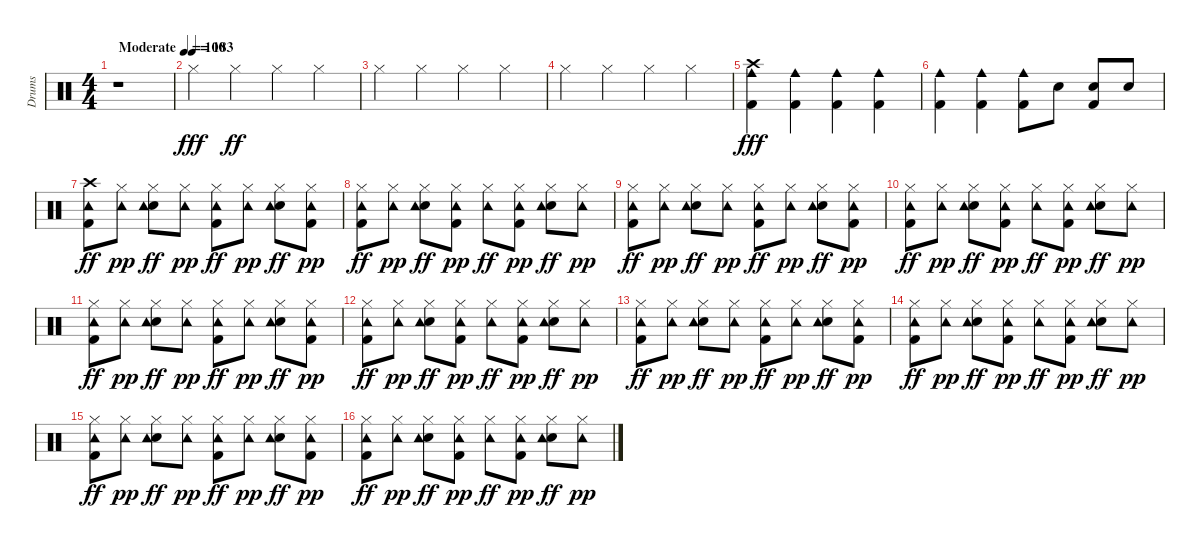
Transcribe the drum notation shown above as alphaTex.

\track ("Drums" "Drums") {instrument percussion}
\staff {score}
\articulation defaults
\ts (4 4)
\tempo (100 "Moderate")
\clef neutral
\ks c
r.1{dy fff} |
\tempo (183)
"Hi-Hat (closed)".4 "Hi-Hat (closed)".4{dy ff} "Hi-Hat (closed)".4 "Hi-Hat (closed)".4 |
"Hi-Hat (closed)".4 "Hi-Hat (closed)".4 "Hi-Hat (closed)".4 "Hi-Hat (closed)".4 |
"Hi-Hat (closed)".4 "Hi-Hat (closed)".4 "Hi-Hat (closed)".4 "Hi-Hat (closed)".4 |
("Cowbell medium (hit)" "Kick (hit) 2" "Crash high (hit)").4{dy fff} ("Cowbell medium (hit)" "Kick (hit) 2").4 ("Cowbell medium (hit)" "Kick (hit) 2").4 ("Cowbell medium (hit)" "Kick (hit) 2").4 |
("Cowbell medium (hit)" "Kick (hit) 2").4 ("Cowbell medium (hit)" "Kick (hit) 2").4 ("Cowbell medium (hit)" "Kick (hit) 2").8 "Snare (hit) 2".8 ("Kick (hit) 2" "Snare (hit) 2").8 "Snare (hit) 2".8 |
("Kick (hit) 2" "Crash high (hit)" "Tambourine (hit)").8{dy ff} ("Hi-Hat (closed)" "Tambourine (hit)").8{dy pp} ("Snare (hit) 2" "Hi-Hat (closed)" "Tambourine (hit)").8{dy ff} ("Hi-Hat (closed)" "Tambourine (hit)").8{dy pp} ("Kick (hit) 2" "Hi-Hat (closed)" "Tambourine (hit)").8{dy ff} ("Hi-Hat (closed)" "Tambourine (hit)").8{dy pp} ("Snare (hit) 2" "Hi-Hat (closed)" "Tambourine (hit)").8{dy ff} ("Kick (hit) 2" "Hi-Hat (closed)" "Tambourine (hit)").8{dy pp} |
("Kick (hit) 2" "Hi-Hat (closed)" "Tambourine (hit)").8{dy ff} ("Hi-Hat (closed)" "Tambourine (hit)").8{dy pp} ("Snare (hit) 2" "Hi-Hat (closed)" "Tambourine (hit)").8{dy ff} ("Kick (hit) 2" "Hi-Hat (closed)" "Tambourine (hit)").8{dy pp} ("Hi-Hat (closed)" "Tambourine (hit)").8{dy ff} ("Kick (hit) 2" "Hi-Hat (closed)" "Tambourine (hit)").8{dy pp} ("Snare (hit) 2" "Hi-Hat (closed)" "Tambourine (hit)").8{dy ff} ("Hi-Hat (closed)" "Tambourine (hit)").8{dy pp} |
("Kick (hit) 2" "Hi-Hat (closed)" "Tambourine (hit)").8{dy ff} ("Hi-Hat (closed)" "Tambourine (hit)").8{dy pp} ("Snare (hit) 2" "Hi-Hat (closed)" "Tambourine (hit)").8{dy ff} ("Hi-Hat (closed)" "Tambourine (hit)").8{dy pp} ("Kick (hit) 2" "Hi-Hat (closed)" "Tambourine (hit)").8{dy ff} ("Hi-Hat (closed)" "Tambourine (hit)").8{dy pp} ("Snare (hit) 2" "Hi-Hat (closed)" "Tambourine (hit)").8{dy ff} ("Kick (hit) 2" "Hi-Hat (closed)" "Tambourine (hit)").8{dy pp} |
("Kick (hit) 2" "Hi-Hat (closed)" "Tambourine (hit)").8{dy ff} ("Hi-Hat (closed)" "Tambourine (hit)").8{dy pp} ("Snare (hit) 2" "Hi-Hat (closed)" "Tambourine (hit)").8{dy ff} ("Kick (hit) 2" "Hi-Hat (closed)" "Tambourine (hit)").8{dy pp} ("Hi-Hat (closed)" "Tambourine (hit)").8{dy ff} ("Kick (hit) 2" "Hi-Hat (closed)" "Tambourine (hit)").8{dy pp} ("Snare (hit) 2" "Hi-Hat (closed)" "Tambourine (hit)").8{dy ff} ("Hi-Hat (closed)" "Tambourine (hit)").8{dy pp} |
("Kick (hit) 2" "Hi-Hat (closed)" "Tambourine (hit)").8{dy ff} ("Hi-Hat (closed)" "Tambourine (hit)").8{dy pp} ("Snare (hit) 2" "Hi-Hat (closed)" "Tambourine (hit)").8{dy ff} ("Hi-Hat (closed)" "Tambourine (hit)").8{dy pp} ("Kick (hit) 2" "Hi-Hat (closed)" "Tambourine (hit)").8{dy ff} ("Hi-Hat (closed)" "Tambourine (hit)").8{dy pp} ("Snare (hit) 2" "Hi-Hat (closed)" "Tambourine (hit)").8{dy ff} ("Kick (hit) 2" "Hi-Hat (closed)" "Tambourine (hit)").8{dy pp} |
("Kick (hit) 2" "Hi-Hat (closed)" "Tambourine (hit)").8{dy ff} ("Hi-Hat (closed)" "Tambourine (hit)").8{dy pp} ("Snare (hit) 2" "Hi-Hat (closed)" "Tambourine (hit)").8{dy ff} ("Kick (hit) 2" "Hi-Hat (closed)" "Tambourine (hit)").8{dy pp} ("Hi-Hat (closed)" "Tambourine (hit)").8{dy ff} ("Kick (hit) 2" "Hi-Hat (closed)" "Tambourine (hit)").8{dy pp} ("Snare (hit) 2" "Hi-Hat (closed)" "Tambourine (hit)").8{dy ff} ("Hi-Hat (closed)" "Tambourine (hit)").8{dy pp} |
("Kick (hit) 2" "Hi-Hat (closed)" "Tambourine (hit)").8{dy ff} ("Hi-Hat (closed)" "Tambourine (hit)").8{dy pp} ("Snare (hit) 2" "Hi-Hat (closed)" "Tambourine (hit)").8{dy ff} ("Hi-Hat (closed)" "Tambourine (hit)").8{dy pp} ("Kick (hit) 2" "Hi-Hat (closed)" "Tambourine (hit)").8{dy ff} ("Hi-Hat (closed)" "Tambourine (hit)").8{dy pp} ("Snare (hit) 2" "Hi-Hat (closed)" "Tambourine (hit)").8{dy ff} ("Kick (hit) 2" "Hi-Hat (closed)" "Tambourine (hit)").8{dy pp} |
("Kick (hit) 2" "Hi-Hat (closed)" "Tambourine (hit)").8{dy ff} ("Hi-Hat (closed)" "Tambourine (hit)").8{dy pp} ("Snare (hit) 2" "Hi-Hat (closed)" "Tambourine (hit)").8{dy ff} ("Kick (hit) 2" "Hi-Hat (closed)" "Tambourine (hit)").8{dy pp} ("Hi-Hat (closed)" "Tambourine (hit)").8{dy ff} ("Kick (hit) 2" "Hi-Hat (closed)" "Tambourine (hit)").8{dy pp} ("Snare (hit) 2" "Hi-Hat (closed)" "Tambourine (hit)").8{dy ff} ("Hi-Hat (closed)" "Tambourine (hit)").8{dy pp} |
("Kick (hit) 2" "Hi-Hat (closed)" "Tambourine (hit)").8{dy ff} ("Hi-Hat (closed)" "Tambourine (hit)").8{dy pp} ("Snare (hit) 2" "Hi-Hat (closed)" "Tambourine (hit)").8{dy ff} ("Hi-Hat (closed)" "Tambourine (hit)").8{dy pp} ("Kick (hit) 2" "Hi-Hat (closed)" "Tambourine (hit)").8{dy ff} ("Hi-Hat (closed)" "Tambourine (hit)").8{dy pp} ("Snare (hit) 2" "Hi-Hat (closed)" "Tambourine (hit)").8{dy ff} ("Kick (hit) 2" "Hi-Hat (closed)" "Tambourine (hit)").8{dy pp} |
("Kick (hit) 2" "Hi-Hat (closed)" "Tambourine (hit)").8{dy ff} ("Hi-Hat (closed)" "Tambourine (hit)").8{dy pp} ("Snare (hit) 2" "Hi-Hat (closed)" "Tambourine (hit)").8{dy ff} ("Kick (hit) 2" "Hi-Hat (closed)" "Tambourine (hit)").8{dy pp} ("Hi-Hat (closed)" "Tambourine (hit)").8{dy ff} ("Kick (hit) 2" "Hi-Hat (closed)" "Tambourine (hit)").8{dy pp} ("Snare (hit) 2" "Hi-Hat (closed)" "Tambourine (hit)").8{dy ff} ("Hi-Hat (closed)" "Tambourine (hit)").8{dy pp}
